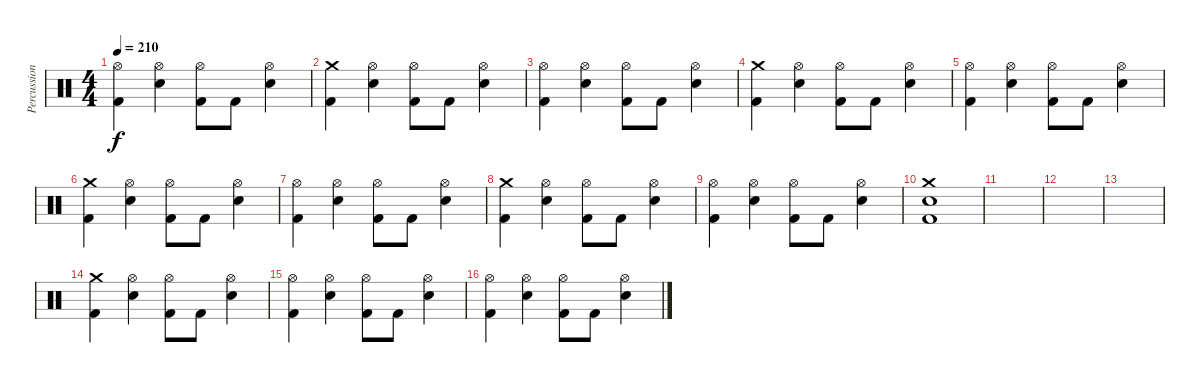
\track ("Percussion" "Percussion") {instrument percussion}
\staff {score}
\articulation defaults
\ts (4 4)
\tempo 210
\clef neutral
\ks c
("Hi-Hat (open)" "Kick (hit) 2").4{dy f} ("Hi-Hat (open)" "Electric Snare (hit)").4 ("Hi-Hat (open)" "Kick (hit) 2").8 "Kick (hit) 2".8 ("Hi-Hat (open)" "Electric Snare (hit)").4 |
("Crash medium (hit)" "Kick (hit) 2").4 ("Hi-Hat (open)" "Electric Snare (hit)").4 ("Hi-Hat (open)" "Kick (hit) 2").8 "Kick (hit) 2".8 ("Hi-Hat (open)" "Electric Snare (hit)").4 |
("Hi-Hat (open)" "Kick (hit) 2").4 ("Hi-Hat (open)" "Electric Snare (hit)").4 ("Hi-Hat (open)" "Kick (hit) 2").8 "Kick (hit) 2".8 ("Hi-Hat (open)" "Electric Snare (hit)").4 |
("Crash medium (hit)" "Kick (hit) 2").4 ("Hi-Hat (open)" "Electric Snare (hit)").4 ("Hi-Hat (open)" "Kick (hit) 2").8 "Kick (hit) 2".8 ("Hi-Hat (open)" "Electric Snare (hit)").4 |
("Hi-Hat (open)" "Kick (hit) 2").4 ("Hi-Hat (open)" "Electric Snare (hit)").4 ("Hi-Hat (open)" "Kick (hit) 2").8 "Kick (hit) 2".8 ("Hi-Hat (open)" "Electric Snare (hit)").4 |
("Crash medium (hit)" "Kick (hit) 2").4 ("Hi-Hat (open)" "Electric Snare (hit)").4 ("Hi-Hat (open)" "Kick (hit) 2").8 "Kick (hit) 2".8 ("Hi-Hat (open)" "Electric Snare (hit)").4 |
("Hi-Hat (open)" "Kick (hit) 2").4 ("Hi-Hat (open)" "Electric Snare (hit)").4 ("Hi-Hat (open)" "Kick (hit) 2").8 "Kick (hit) 2".8 ("Hi-Hat (open)" "Electric Snare (hit)").4 |
("Crash medium (hit)" "Kick (hit) 2").4 ("Hi-Hat (open)" "Electric Snare (hit)").4 ("Hi-Hat (open)" "Kick (hit) 2").8 "Kick (hit) 2".8 ("Hi-Hat (open)" "Electric Snare (hit)").4 |
("Hi-Hat (open)" "Kick (hit) 2").4 ("Hi-Hat (open)" "Electric Snare (hit)").4 ("Hi-Hat (open)" "Kick (hit) 2").8 "Kick (hit) 2".8 ("Hi-Hat (open)" "Electric Snare (hit)").4 |
("Crash medium (hit)" "Electric Snare (hit)" "Kick (hit) 2").1 |
|
|
|
("Crash medium (hit)" "Kick (hit) 2").4 ("Hi-Hat (open)" "Electric Snare (hit)").4 ("Hi-Hat (open)" "Kick (hit) 2").8 "Kick (hit) 2".8 ("Hi-Hat (open)" "Electric Snare (hit)").4 |
("Hi-Hat (open)" "Kick (hit) 2").4 ("Hi-Hat (open)" "Electric Snare (hit)").4 ("Hi-Hat (open)" "Kick (hit) 2").8 "Kick (hit) 2".8 ("Hi-Hat (open)" "Electric Snare (hit)").4 |
("Hi-Hat (open)" "Kick (hit) 2").4 ("Hi-Hat (open)" "Electric Snare (hit)").4 ("Hi-Hat (open)" "Kick (hit) 2").8 "Kick (hit) 2".8 ("Hi-Hat (open)" "Electric Snare (hit)").4
